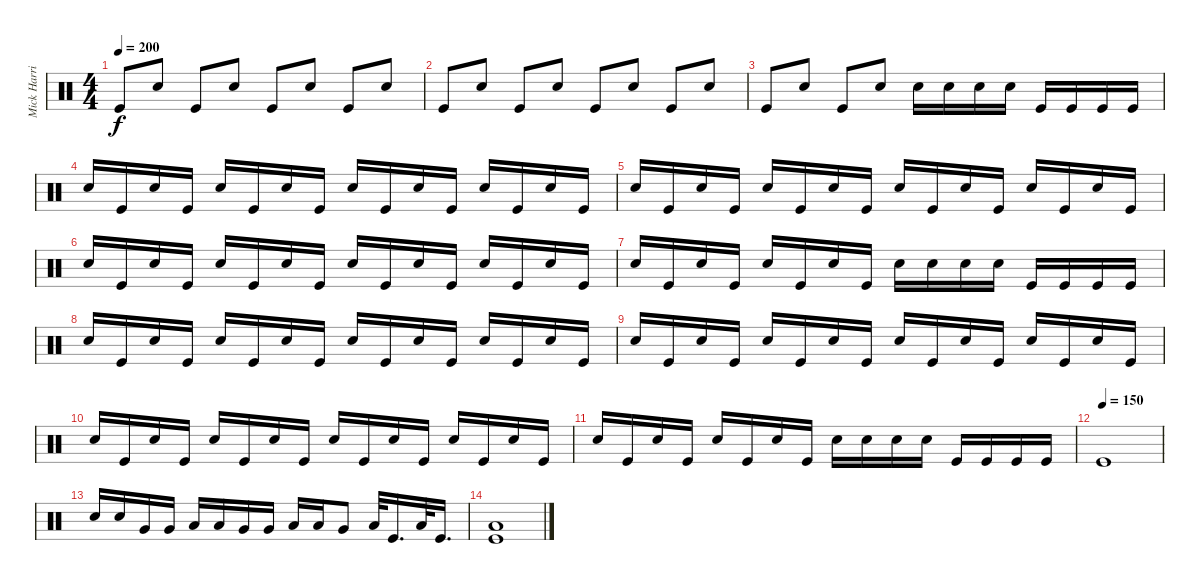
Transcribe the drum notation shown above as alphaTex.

\track ("Mick Harris" "Mick Harri") {instrument percussion}
\staff {score}
\articulation defaults
\ts (4 4)
\tempo 200
\clef neutral
\ks c "Kick (hit)".8{dy f} "Snare (hit) 2".8 "Kick (hit)".8 "Snare (hit) 2".8 "Kick (hit)".8 "Snare (hit) 2".8 "Kick (hit)".8 "Snare (hit) 2".8
|
"Kick (hit)".8 "Snare (hit) 2".8 "Kick (hit)".8 "Snare (hit) 2".8 "Kick (hit)".8 "Snare (hit) 2".8 "Kick (hit)".8 "Snare (hit) 2".8 |
"Kick (hit)".8 "Snare (hit) 2".8 "Kick (hit)".8 "Snare (hit) 2".8 "Snare (hit) 2".16 "Snare (hit) 2".16 "Snare (hit) 2".16 "Snare (hit) 2".16 "Kick (hit)".16 "Kick (hit)".16 "Kick (hit)".16 "Kick (hit)".16 |
"Snare (hit) 2".16 "Kick (hit)".16 "Snare (hit) 2".16 "Kick (hit)".16 "Snare (hit) 2".16 "Kick (hit)".16 "Snare (hit) 2".16 "Kick (hit)".16 "Snare (hit) 2".16 "Kick (hit)".16 "Snare (hit) 2".16 "Kick (hit)".16 "Snare (hit) 2".16 "Kick (hit)".16 "Snare (hit) 2".16 "Kick (hit)".16 |
"Snare (hit) 2".16 "Kick (hit)".16 "Snare (hit) 2".16 "Kick (hit)".16 "Snare (hit) 2".16 "Kick (hit)".16 "Snare (hit) 2".16 "Kick (hit)".16 "Snare (hit) 2".16 "Kick (hit)".16 "Snare (hit) 2".16 "Kick (hit)".16 "Snare (hit) 2".16 "Kick (hit)".16 "Snare (hit) 2".16 "Kick (hit)".16 |
"Snare (hit) 2".16 "Kick (hit)".16 "Snare (hit) 2".16 "Kick (hit)".16 "Snare (hit) 2".16 "Kick (hit)".16 "Snare (hit) 2".16 "Kick (hit)".16 "Snare (hit) 2".16 "Kick (hit)".16 "Snare (hit) 2".16 "Kick (hit)".16 "Snare (hit) 2".16 "Kick (hit)".16 "Snare (hit) 2".16 "Kick (hit)".16 |
"Snare (hit) 2".16 "Kick (hit)".16 "Snare (hit) 2".16 "Kick (hit)".16 "Snare (hit) 2".16 "Kick (hit)".16 "Snare (hit) 2".16 "Kick (hit)".16 "Snare (hit) 2".16 "Snare (hit) 2".16 "Snare (hit) 2".16 "Snare (hit) 2".16 "Kick (hit)".16 "Kick (hit)".16 "Kick (hit)".16 "Kick (hit)".16 |
"Snare (hit) 2".16 "Kick (hit)".16 "Snare (hit) 2".16 "Kick (hit)".16 "Snare (hit) 2".16 "Kick (hit)".16 "Snare (hit) 2".16 "Kick (hit)".16 "Snare (hit) 2".16 "Kick (hit)".16 "Snare (hit) 2".16 "Kick (hit)".16 "Snare (hit) 2".16 "Kick (hit)".16 "Snare (hit) 2".16 "Kick (hit)".16 |
"Snare (hit) 2".16 "Kick (hit)".16 "Snare (hit) 2".16 "Kick (hit)".16 "Snare (hit) 2".16 "Kick (hit)".16 "Snare (hit) 2".16 "Kick (hit)".16 "Snare (hit) 2".16 "Kick (hit)".16 "Snare (hit) 2".16 "Kick (hit)".16 "Snare (hit) 2".16 "Kick (hit)".16 "Snare (hit) 2".16 "Kick (hit)".16 |
"Snare (hit) 2".16 "Kick (hit)".16 "Snare (hit) 2".16 "Kick (hit)".16 "Snare (hit) 2".16 "Kick (hit)".16 "Snare (hit) 2".16 "Kick (hit)".16 "Snare (hit) 2".16 "Kick (hit)".16 "Snare (hit) 2".16 "Kick (hit)".16 "Snare (hit) 2".16 "Kick (hit)".16 "Snare (hit) 2".16 "Kick (hit)".16 |
"Snare (hit) 2".16 "Kick (hit)".16 "Snare (hit) 2".16 "Kick (hit)".16 "Snare (hit) 2".16 "Kick (hit)".16 "Snare (hit) 2".16 "Kick (hit)".16 "Snare (hit) 2".16 "Snare (hit) 2".16 "Snare (hit) 2".16 "Snare (hit) 2".16 "Kick (hit)".16 "Kick (hit)".16 "Kick (hit)".16 "Kick (hit)".16 |
\tempo (150)
"Kick (hit)".1 |
"Snare (hit) 2".16 "Snare (hit) 2".16 "Very Low Tom (hit)".16 "Very Low Tom (hit)".16 "Low Floor Tom (hit)".16 "Low Floor Tom (hit)".16 "Very Low Tom (hit)".16 "Very Low Tom (hit)".16 "Low Floor Tom (hit)".16 "Low Floor Tom (hit)".16 "Very Low Tom (hit)".8 "Low Floor Tom (hit)".32 "Kick (hit)".16{d} "Low Floor Tom (hit)".32 "Kick (hit)".16{d} |
("Kick (hit)" "Low Floor Tom (hit)").1
